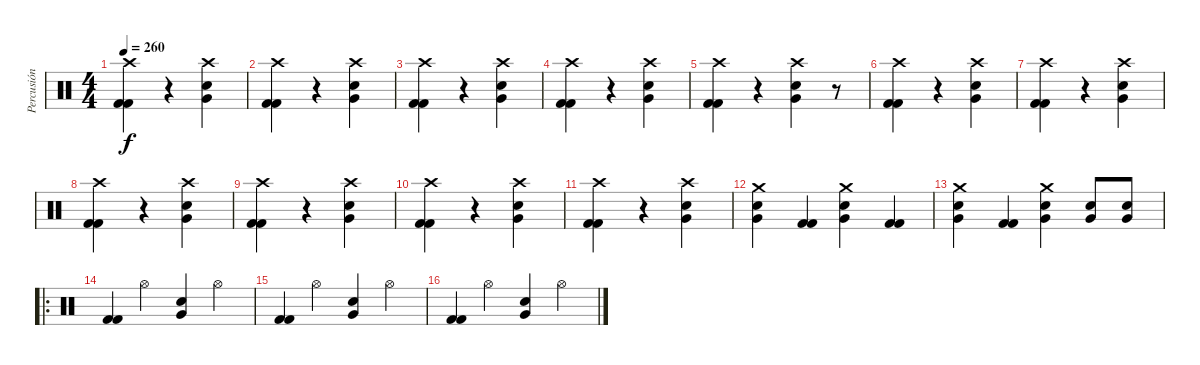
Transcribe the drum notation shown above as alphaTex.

\track ("Percusión" "Percusión") {instrument percussion}
\staff {score}
\articulation defaults
\ts (4 4)
\tempo 260
\clef neutral
\ks c
("Kick (hit) 2" "Kick (hit) 2" "Crash high (hit)").4{dy f} r.4 ("Very Low Tom (hit)" "Electric Snare (hit)" "Crash high (hit)").4 |
("Kick (hit) 2" "Kick (hit) 2" "Crash high (hit)").4 r.4 ("Very Low Tom (hit)" "Electric Snare (hit)" "Crash high (hit)").4 |
("Kick (hit) 2" "Kick (hit) 2" "Crash high (hit)").4 r.4 ("Very Low Tom (hit)" "Electric Snare (hit)" "Crash high (hit)").4 |
("Kick (hit) 2" "Kick (hit) 2" "Crash high (hit)").4 r.4 ("Very Low Tom (hit)" "Electric Snare (hit)" "Crash high (hit)").4 |
("Kick (hit) 2" "Kick (hit) 2" "Crash high (hit)").4 r.4 ("Very Low Tom (hit)" "Electric Snare (hit)" "Crash high (hit)").4 r.8 |
("Kick (hit) 2" "Kick (hit) 2" "Crash high (hit)").4 r.4 ("Very Low Tom (hit)" "Electric Snare (hit)" "Crash high (hit)").4 |
("Kick (hit) 2" "Kick (hit) 2" "Crash high (hit)").4 r.4 ("Very Low Tom (hit)" "Electric Snare (hit)" "Crash high (hit)").4 |
("Kick (hit) 2" "Kick (hit) 2" "Crash high (hit)").4 r.4 ("Very Low Tom (hit)" "Electric Snare (hit)" "Crash high (hit)").4 |
("Kick (hit) 2" "Kick (hit) 2" "Crash high (hit)").4 r.4 ("Very Low Tom (hit)" "Electric Snare (hit)" "Crash high (hit)").4 |
("Kick (hit) 2" "Kick (hit) 2" "Crash high (hit)").4 r.4 ("Very Low Tom (hit)" "Electric Snare (hit)" "Crash high (hit)").4 |
("Kick (hit) 2" "Kick (hit) 2" "Crash high (hit)").4 r.4 ("Very Low Tom (hit)" "Electric Snare (hit)" "Crash high (hit)").4 |
("Very Low Tom (hit)" "Electric Snare (hit)" "Crash medium (hit)").4 ("Kick (hit) 2" "Kick (hit) 2").4 ("Very Low Tom (hit)" "Electric Snare (hit)" "Crash medium (hit)").4 ("Kick (hit) 2" "Kick (hit) 2").4 |
("Very Low Tom (hit)" "Electric Snare (hit)" "Crash medium (hit)").4 ("Kick (hit) 2" "Kick (hit) 2").4 ("Very Low Tom (hit)" "Electric Snare (hit)" "Crash medium (hit)").4 ("Very Low Tom (hit)" "Electric Snare (hit)").8 ("Very Low Tom (hit)" "Electric Snare (hit)").8 |
\ro
("Kick (hit) 2" "Kick (hit) 2").4 "Hi-Hat (open)".4 ("Very Low Tom (hit)" "Electric Snare (hit)").4 "Hi-Hat (open)".4 |
("Kick (hit) 2" "Kick (hit) 2").4 "Hi-Hat (open)".4 ("Very Low Tom (hit)" "Electric Snare (hit)").4 "Hi-Hat (open)".4 |
("Kick (hit) 2" "Kick (hit) 2").4 "Hi-Hat (open)".4 ("Very Low Tom (hit)" "Electric Snare (hit)").4 "Hi-Hat (open)".4
